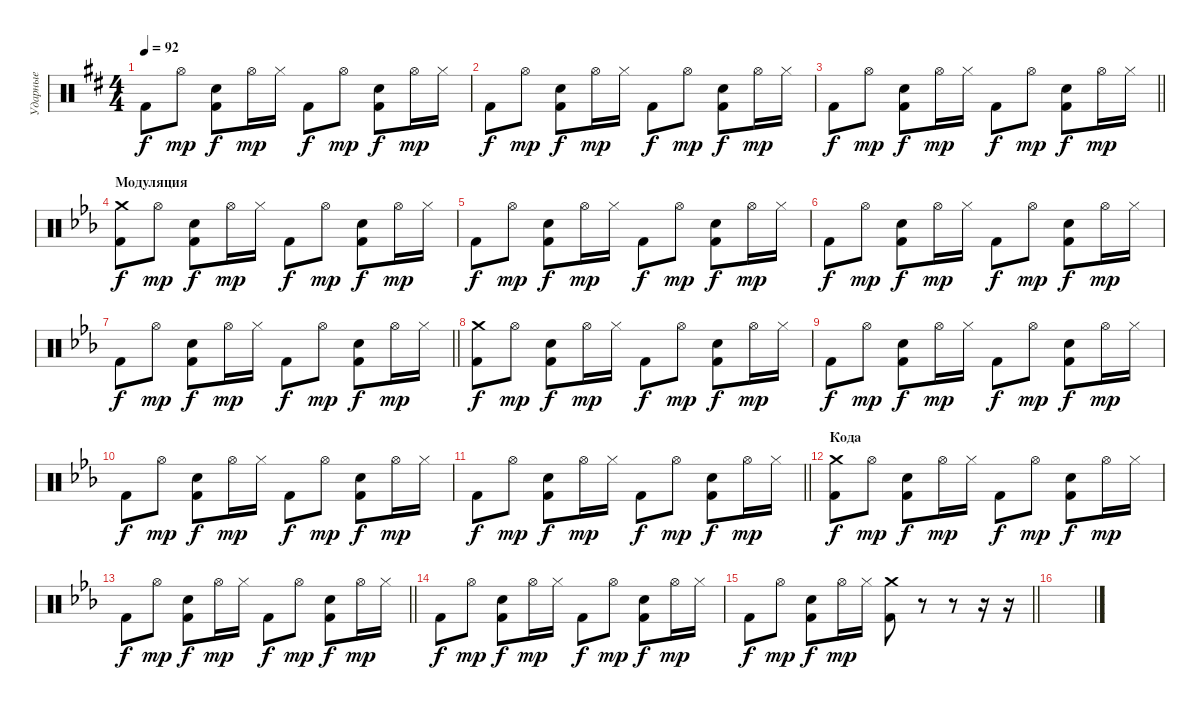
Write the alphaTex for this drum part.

\track ("Ударные" "Ударные") {instrument percussion}
\staff {score}
\articulation defaults
\ts (4 4)
\tempo 92
\clef neutral
\ks bminor "Kick (hit) 2".8{dy f} "Hi-Hat (open)".8{dy mp}
("Electric Snare (hit)" "Kick (hit) 2").8{dy f} "Hi-Hat (open)".16{dy mp} "Hi-Hat (closed)".16 "Kick (hit) 2".8{dy f} "Hi-Hat (open)".8{dy mp} ("Electric Snare (hit)" "Kick (hit) 2").8{dy f} "Hi-Hat (open)".16{dy mp} "Hi-Hat (closed)".16 |
"Kick (hit) 2".8{dy f} "Hi-Hat (open)".8{dy mp} ("Electric Snare (hit)" "Kick (hit) 2").8{dy f} "Hi-Hat (open)".16{dy mp} "Hi-Hat (closed)".16 "Kick (hit) 2".8{dy f} "Hi-Hat (open)".8{dy mp} ("Electric Snare (hit)" "Kick (hit) 2").8{dy f} "Hi-Hat (open)".16{dy mp} "Hi-Hat (closed)".16 |
\barLineRight lightlight "Kick (hit) 2".8{dy f} "Hi-Hat (open)".8{dy mp}
("Electric Snare (hit)" "Kick (hit) 2").8{dy f} "Hi-Hat (open)".16{dy mp} "Hi-Hat (closed)".16 "Kick (hit) 2".8{dy f} "Hi-Hat (open)".8{dy mp} ("Electric Snare (hit)" "Kick (hit) 2").8{dy f} "Hi-Hat (open)".16{dy mp} "Hi-Hat (closed)".16 |
\section ("" "Модуляция")
\ks cminor
("Crash medium (hit)" "Kick (hit) 2").8{dy f} "Hi-Hat (open)".8{dy mp} ("Electric Snare (hit)" "Kick (hit) 2").8{dy f} "Hi-Hat (open)".16{dy mp} "Hi-Hat (closed)".16 "Kick (hit) 2".8{dy f} "Hi-Hat (open)".8{dy mp} ("Electric Snare (hit)" "Kick (hit) 2").8{dy f} "Hi-Hat (open)".16{dy mp} "Hi-Hat (closed)".16 |
"Kick (hit) 2".8{dy f} "Hi-Hat (open)".8{dy mp} ("Electric Snare (hit)" "Kick (hit) 2").8{dy f} "Hi-Hat (open)".16{dy mp} "Hi-Hat (closed)".16 "Kick (hit) 2".8{dy f} "Hi-Hat (open)".8{dy mp} ("Electric Snare (hit)" "Kick (hit) 2").8{dy f} "Hi-Hat (open)".16{dy mp} "Hi-Hat (closed)".16 |
"Kick (hit) 2".8{dy f} "Hi-Hat (open)".8{dy mp} ("Electric Snare (hit)" "Kick (hit) 2").8{dy f} "Hi-Hat (open)".16{dy mp} "Hi-Hat (closed)".16 "Kick (hit) 2".8{dy f} "Hi-Hat (open)".8{dy mp} ("Electric Snare (hit)" "Kick (hit) 2").8{dy f} "Hi-Hat (open)".16{dy mp} "Hi-Hat (closed)".16 |
\barLineRight lightlight "Kick (hit) 2".8{dy f} "Hi-Hat (open)".8{dy mp}
("Electric Snare (hit)" "Kick (hit) 2").8{dy f} "Hi-Hat (open)".16{dy mp} "Hi-Hat (closed)".16 "Kick (hit) 2".8{dy f} "Hi-Hat (open)".8{dy mp} ("Electric Snare (hit)" "Kick (hit) 2").8{dy f} "Hi-Hat (open)".16{dy mp} "Hi-Hat (closed)".16 |
("Crash medium (hit)" "Kick (hit) 2").8{dy f} "Hi-Hat (open)".8{dy mp} ("Electric Snare (hit)" "Kick (hit) 2").8{dy f} "Hi-Hat (open)".16{dy mp} "Hi-Hat (closed)".16 "Kick (hit) 2".8{dy f} "Hi-Hat (open)".8{dy mp} ("Electric Snare (hit)" "Kick (hit) 2").8{dy f} "Hi-Hat (open)".16{dy mp} "Hi-Hat (closed)".16 |
"Kick (hit) 2".8{dy f} "Hi-Hat (open)".8{dy mp} ("Electric Snare (hit)" "Kick (hit) 2").8{dy f} "Hi-Hat (open)".16{dy mp} "Hi-Hat (closed)".16 "Kick (hit) 2".8{dy f} "Hi-Hat (open)".8{dy mp} ("Electric Snare (hit)" "Kick (hit) 2").8{dy f} "Hi-Hat (open)".16{dy mp} "Hi-Hat (closed)".16 |
"Kick (hit) 2".8{dy f} "Hi-Hat (open)".8{dy mp} ("Electric Snare (hit)" "Kick (hit) 2").8{dy f} "Hi-Hat (open)".16{dy mp} "Hi-Hat (closed)".16 "Kick (hit) 2".8{dy f} "Hi-Hat (open)".8{dy mp} ("Electric Snare (hit)" "Kick (hit) 2").8{dy f} "Hi-Hat (open)".16{dy mp} "Hi-Hat (closed)".16 |
\barLineRight lightlight "Kick (hit) 2".8{dy f} "Hi-Hat (open)".8{dy mp}
("Electric Snare (hit)" "Kick (hit) 2").8{dy f} "Hi-Hat (open)".16{dy mp} "Hi-Hat (closed)".16 "Kick (hit) 2".8{dy f} "Hi-Hat (open)".8{dy mp} ("Electric Snare (hit)" "Kick (hit) 2").8{dy f} "Hi-Hat (open)".16{dy mp} "Hi-Hat (closed)".16 |
\section ("" "Кода")
("Crash medium (hit)" "Kick (hit) 2").8{dy f} "Hi-Hat (open)".8{dy mp} ("Electric Snare (hit)" "Kick (hit) 2").8{dy f} "Hi-Hat (open)".16{dy mp} "Hi-Hat (closed)".16 "Kick (hit) 2".8{dy f} "Hi-Hat (open)".8{dy mp} ("Electric Snare (hit)" "Kick (hit) 2").8{dy f} "Hi-Hat (open)".16{dy mp} "Hi-Hat (closed)".16 |
\barLineRight lightlight "Kick (hit) 2".8{dy f} "Hi-Hat (open)".8{dy mp}
("Electric Snare (hit)" "Kick (hit) 2").8{dy f} "Hi-Hat (open)".16{dy mp} "Hi-Hat (closed)".16 "Kick (hit) 2".8{dy f} "Hi-Hat (open)".8{dy mp} ("Electric Snare (hit)" "Kick (hit) 2").8{dy f} "Hi-Hat (open)".16{dy mp} "Hi-Hat (closed)".16 |
"Kick (hit) 2".8{dy f} "Hi-Hat (open)".8{dy mp} ("Electric Snare (hit)" "Kick (hit) 2").8{dy f} "Hi-Hat (open)".16{dy mp} "Hi-Hat (closed)".16 "Kick (hit) 2".8{dy f} "Hi-Hat (open)".8{dy mp} ("Electric Snare (hit)" "Kick (hit) 2").8{dy f} "Hi-Hat (open)".16{dy mp} "Hi-Hat (closed)".16 |
\barLineRight lightlight "Kick (hit) 2".8{dy f} "Hi-Hat (open)".8{dy mp}
("Electric Snare (hit)" "Kick (hit) 2").8{dy f} "Hi-Hat (open)".16{dy mp} "Hi-Hat (closed)".16 ("Crash medium (hit)" "Kick (hit) 2").8 r.8 r.8 r.16 r.16 |
\section ("" "")
